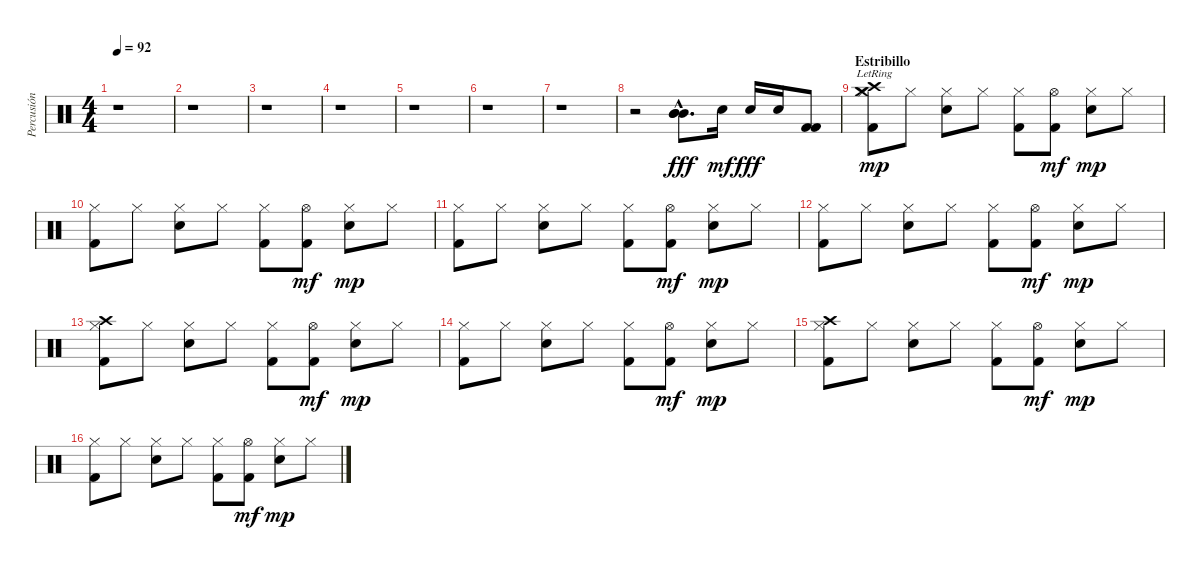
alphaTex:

\track ("Percusión" "Percusión") {instrument percussion}
\staff {score}
\articulation defaults
\ts (4 4)
\tempo 92
\clef neutral
\ks c
r.1{dy f} |
r.1 |
r.1 |
r.1 |
r.1 |
r.1 |
r.1 |
r.2 ("Mid Tom (hit)"{hac} "Mid Tom (hit)"{hac} "Mid Tom (hit)"{hac}).8{d dy fff} "Snare (hit) 2".16{dy mf} "Snare (hit) 2".16{dy fff} "Snare (hit) 2".16 ("Kick (hit) 2" "Kick (hit) 2").8 |
\section ("" "Estribillo")
("Crash high (hit)"{lr} "Crash medium (hit)" "Kick (hit) 2" "Hi-Hat (closed)").8{dy mp} "Hi-Hat (closed)".8 ("Snare (hit) 2" "Hi-Hat (closed)").8 "Hi-Hat (closed)".8 ("Kick (hit) 2" "Hi-Hat (closed)").8 ("Kick (hit) 2" "Hi-Hat (open)").8{dy mf} ("Snare (hit) 2" "Hi-Hat (closed)").8{dy mp} "Hi-Hat (closed)".8 |
("Kick (hit) 2" "Hi-Hat (closed)").8 "Hi-Hat (closed)".8 ("Snare (hit) 2" "Hi-Hat (closed)").8 "Hi-Hat (closed)".8 ("Kick (hit) 2" "Hi-Hat (closed)").8 ("Kick (hit) 2" "Hi-Hat (open)").8{dy mf} ("Snare (hit) 2" "Hi-Hat (closed)").8{dy mp} "Hi-Hat (closed)".8 |
("Kick (hit) 2" "Hi-Hat (closed)").8 "Hi-Hat (closed)".8 ("Snare (hit) 2" "Hi-Hat (closed)").8 "Hi-Hat (closed)".8 ("Kick (hit) 2" "Hi-Hat (closed)").8 ("Kick (hit) 2" "Hi-Hat (open)").8{dy mf} ("Snare (hit) 2" "Hi-Hat (closed)").8{dy mp} "Hi-Hat (closed)".8 |
("Kick (hit) 2" "Hi-Hat (closed)").8 "Hi-Hat (closed)".8 ("Snare (hit) 2" "Hi-Hat (closed)").8 "Hi-Hat (closed)".8 ("Kick (hit) 2" "Hi-Hat (closed)").8 ("Kick (hit) 2" "Hi-Hat (open)").8{dy mf} ("Snare (hit) 2" "Hi-Hat (closed)").8{dy mp} "Hi-Hat (closed)".8 |
("Crash high (hit)" "Kick (hit) 2" "Hi-Hat (closed)").8 "Hi-Hat (closed)".8 ("Snare (hit) 2" "Hi-Hat (closed)").8 "Hi-Hat (closed)".8 ("Kick (hit) 2" "Hi-Hat (closed)").8 ("Kick (hit) 2" "Hi-Hat (open)").8{dy mf} ("Snare (hit) 2" "Hi-Hat (closed)").8{dy mp} "Hi-Hat (closed)".8 |
("Kick (hit) 2" "Hi-Hat (closed)").8 "Hi-Hat (closed)".8 ("Snare (hit) 2" "Hi-Hat (closed)").8 "Hi-Hat (closed)".8 ("Kick (hit) 2" "Hi-Hat (closed)").8 ("Kick (hit) 2" "Hi-Hat (open)").8{dy mf} ("Snare (hit) 2" "Hi-Hat (closed)").8{dy mp} "Hi-Hat (closed)".8 |
("Crash high (hit)" "Kick (hit) 2" "Hi-Hat (closed)").8 "Hi-Hat (closed)".8 ("Snare (hit) 2" "Hi-Hat (closed)").8 "Hi-Hat (closed)".8 ("Kick (hit) 2" "Hi-Hat (closed)").8 ("Kick (hit) 2" "Hi-Hat (open)").8{dy mf} ("Snare (hit) 2" "Hi-Hat (closed)").8{dy mp} "Hi-Hat (closed)".8 |
("Kick (hit) 2" "Hi-Hat (closed)").8 "Hi-Hat (closed)".8 ("Snare (hit) 2" "Hi-Hat (closed)").8 "Hi-Hat (closed)".8 ("Kick (hit) 2" "Hi-Hat (closed)").8 ("Kick (hit) 2" "Hi-Hat (open)").8{dy mf} ("Snare (hit) 2" "Hi-Hat (closed)").8{dy mp} "Hi-Hat (closed)".8
